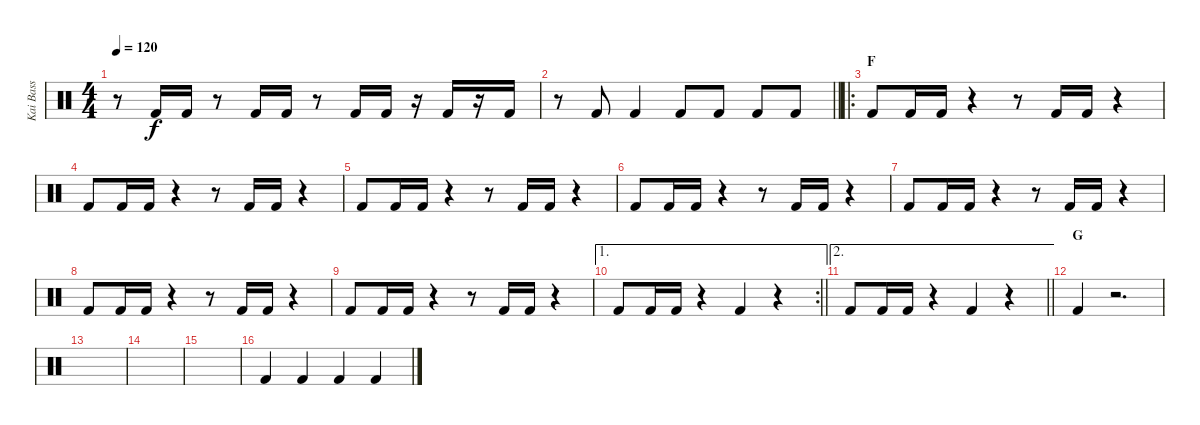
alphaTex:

\track ("Kai Bass" "Kai Bass") {instrument percussion}
\staff {score}
\articulation defaults
\ts (4 4)
\tempo 120
\clef neutral
\ks c
r.8{dy f} "Kick (hit) 2".16 "Kick (hit) 2".16 r.8 "Kick (hit) 2".16 "Kick (hit) 2".16 r.8 "Kick (hit) 2".16 "Kick (hit) 2".16 r.16 "Kick (hit) 2".16 r.16 "Kick (hit) 2".16 |
\barLineRight lightlight
r.8 "Kick (hit) 2".8 "Kick (hit) 2".4 "Kick (hit) 2".8 "Kick (hit) 2".8 "Kick (hit) 2".8 "Kick (hit) 2".8 |
\ro
\section ("" "F")
"Kick (hit) 2".8 "Kick (hit) 2".16 "Kick (hit) 2".16 r.4 r.8 "Kick (hit) 2".16 "Kick (hit) 2".16 r.4 |
"Kick (hit) 2".8 "Kick (hit) 2".16 "Kick (hit) 2".16 r.4 r.8 "Kick (hit) 2".16 "Kick (hit) 2".16 r.4 |
"Kick (hit) 2".8 "Kick (hit) 2".16 "Kick (hit) 2".16 r.4 r.8 "Kick (hit) 2".16 "Kick (hit) 2".16 r.4 |
"Kick (hit) 2".8 "Kick (hit) 2".16 "Kick (hit) 2".16 r.4 r.8 "Kick (hit) 2".16 "Kick (hit) 2".16 r.4 |
"Kick (hit) 2".8 "Kick (hit) 2".16 "Kick (hit) 2".16 r.4 r.8 "Kick (hit) 2".16 "Kick (hit) 2".16 r.4 |
"Kick (hit) 2".8 "Kick (hit) 2".16 "Kick (hit) 2".16 r.4 r.8 "Kick (hit) 2".16 "Kick (hit) 2".16 r.4 |
"Kick (hit) 2".8 "Kick (hit) 2".16 "Kick (hit) 2".16 r.4 r.8 "Kick (hit) 2".16 "Kick (hit) 2".16 r.4 |
\ae 1
\rc 2
\barLineRight lightlight "Kick (hit) 2".8 "Kick (hit) 2".16 "Kick (hit) 2".16
r.4 "Kick (hit) 2".4 r.4 |
\ae 2
\barLineRight lightlight "Kick (hit) 2".8 "Kick (hit) 2".16 "Kick (hit) 2".16
r.4 "Kick (hit) 2".4 r.4 |
\section ("" "G")
"Kick (hit) 2".4 r.2{d} |
|
|
|
"Kick (hit) 2".4 "Kick (hit) 2".4 "Kick (hit) 2".4 "Kick (hit) 2".4
